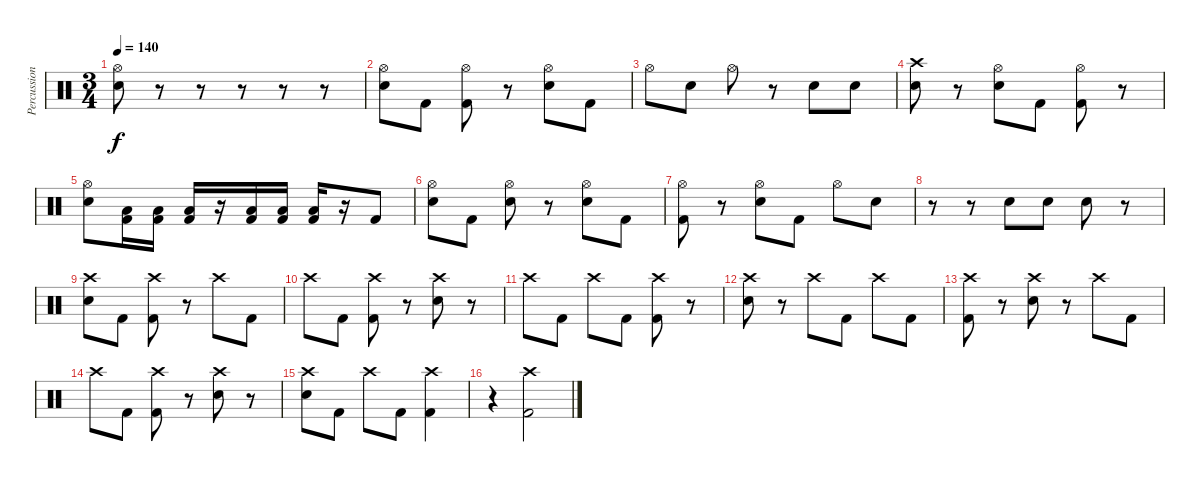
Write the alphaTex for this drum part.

\track ("Percussion" "Percussion") {instrument percussion}
\staff {score}
\articulation defaults
\ts (3 4)
\tempo 140
\clef neutral
\ks c
("Electric Snare (hit)" "Hi-Hat (open)").8{dy f} r.8 r.8 r.8 r.8 r.8 |
("Hi-Hat (open)" "Electric Snare (hit)").8 "Kick (hit) 2".8 ("Hi-Hat (open)" "Kick (hit) 2").8 r.8 ("Hi-Hat (open)" "Electric Snare (hit)").8 "Kick (hit) 2".8 |
"Hi-Hat (open)".8 "Electric Snare (hit)".8 "Hi-Hat (open)".8 r.8 "Electric Snare (hit)".8 "Electric Snare (hit)".8 |
("Crash high (hit)" "Electric Snare (hit)").8 r.8 ("Electric Snare (hit)" "Hi-Hat (open)").8 "Kick (hit) 2".8 ("Kick (hit) 2" "Hi-Hat (open)").8 r.8 |
("Electric Snare (hit)" "Hi-Hat (open)").8 ("Low Tom (hit)" "Kick (hit) 2").16 ("Low Tom (hit)" "Kick (hit) 2").16 ("Low Tom (hit)" "Kick (hit) 2").16 r.16 ("Low Tom (hit)" "Kick (hit) 2").16 ("Low Tom (hit)" "Kick (hit) 2").16 ("Low Tom (hit)" "Kick (hit) 2").16 r.16 "Kick (hit) 2".8 |
("Electric Snare (hit)" "Hi-Hat (open)").8 "Kick (hit) 2".8 ("Electric Snare (hit)" "Hi-Hat (open)").8 r.8 ("Electric Snare (hit)" "Hi-Hat (open)").8 "Kick (hit) 2".8 |
("Kick (hit) 2" "Hi-Hat (open)").8 r.8 ("Electric Snare (hit)" "Hi-Hat (open)").8 "Kick (hit) 2".8 "Hi-Hat (open)".8 "Electric Snare (hit)".8 |
r.8 r.8 "Electric Snare (hit)".8 "Electric Snare (hit)".8 "Electric Snare (hit)".8 r.8 |
("Electric Snare (hit)" "Crash high (hit)").8 "Kick (hit) 2".8 ("Kick (hit) 2" "Crash high (hit)").8 r.8 "Crash high (hit)".8 "Kick (hit) 2".8 |
"Crash high (hit)".8 "Kick (hit) 2".8 ("Kick (hit) 2" "Crash high (hit)").8 r.8 ("Electric Snare (hit)" "Crash high (hit)").8 r.8 |
"Crash high (hit)".8 "Kick (hit) 2".8 "Crash high (hit)".8 "Kick (hit) 2".8 ("Kick (hit) 2" "Crash high (hit)").8 r.8 |
("Electric Snare (hit)" "Crash high (hit)").8 r.8 "Crash high (hit)".8 "Kick (hit) 2".8 "Crash high (hit)".8 "Kick (hit) 2".8 |
("Kick (hit) 2" "Crash high (hit)").8 r.8 ("Electric Snare (hit)" "Crash high (hit)").8 r.8 "Crash high (hit)".8 "Kick (hit) 2".8 |
"Crash high (hit)".8 "Kick (hit) 2".8 ("Kick (hit) 2" "Crash high (hit)").8 r.8 ("Electric Snare (hit)" "Crash high (hit)").8 r.8 |
("Electric Snare (hit)" "Crash high (hit)").8 "Kick (hit) 2".8 "Crash high (hit)".8 "Kick (hit) 2".8 ("Crash high (hit)" "Kick (hit) 2").4 |
r.4 ("Crash high (hit)" "Kick (hit) 2").2
